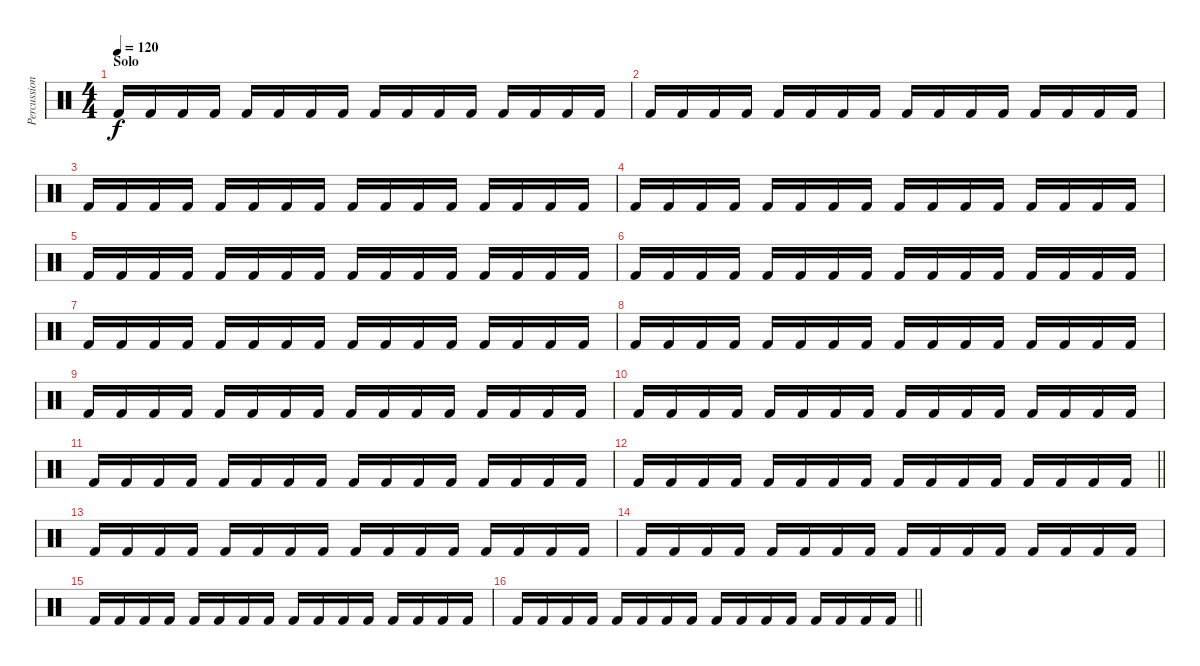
\track ("Percussioni" "Percussion") {instrument percussion}
\staff
\articulation defaults
\ts (4 4)
\section ("" "Solo")
\tempo 120
\clef neutral
\ks c "Kick (hit) 2".16{dy f} "Kick (hit) 2".16 "Kick (hit) 2".16 "Kick (hit) 2".16 "Kick (hit) 2".16 "Kick (hit) 2".16 "Kick (hit) 2".16 "Kick (hit) 2".16 "Kick (hit) 2".16 "Kick (hit) 2".16 "Kick (hit) 2".16 "Kick (hit) 2".16 "Kick (hit) 2".16 "Kick (hit) 2".16 "Kick (hit) 2".16 "Kick (hit) 2".16
|
"Kick (hit) 2".16 "Kick (hit) 2".16 "Kick (hit) 2".16 "Kick (hit) 2".16 "Kick (hit) 2".16 "Kick (hit) 2".16 "Kick (hit) 2".16 "Kick (hit) 2".16 "Kick (hit) 2".16 "Kick (hit) 2".16 "Kick (hit) 2".16 "Kick (hit) 2".16 "Kick (hit) 2".16 "Kick (hit) 2".16 "Kick (hit) 2".16 "Kick (hit) 2".16 |
"Kick (hit) 2".16 "Kick (hit) 2".16 "Kick (hit) 2".16 "Kick (hit) 2".16 "Kick (hit) 2".16 "Kick (hit) 2".16 "Kick (hit) 2".16 "Kick (hit) 2".16 "Kick (hit) 2".16 "Kick (hit) 2".16 "Kick (hit) 2".16 "Kick (hit) 2".16 "Kick (hit) 2".16 "Kick (hit) 2".16 "Kick (hit) 2".16 "Kick (hit) 2".16 |
"Kick (hit) 2".16 "Kick (hit) 2".16 "Kick (hit) 2".16 "Kick (hit) 2".16 "Kick (hit) 2".16 "Kick (hit) 2".16 "Kick (hit) 2".16 "Kick (hit) 2".16 "Kick (hit) 2".16 "Kick (hit) 2".16 "Kick (hit) 2".16 "Kick (hit) 2".16 "Kick (hit) 2".16 "Kick (hit) 2".16 "Kick (hit) 2".16 "Kick (hit) 2".16 |
"Kick (hit) 2".16 "Kick (hit) 2".16 "Kick (hit) 2".16 "Kick (hit) 2".16 "Kick (hit) 2".16 "Kick (hit) 2".16 "Kick (hit) 2".16 "Kick (hit) 2".16 "Kick (hit) 2".16 "Kick (hit) 2".16 "Kick (hit) 2".16 "Kick (hit) 2".16 "Kick (hit) 2".16 "Kick (hit) 2".16 "Kick (hit) 2".16 "Kick (hit) 2".16 |
"Kick (hit) 2".16 "Kick (hit) 2".16 "Kick (hit) 2".16 "Kick (hit) 2".16 "Kick (hit) 2".16 "Kick (hit) 2".16 "Kick (hit) 2".16 "Kick (hit) 2".16 "Kick (hit) 2".16 "Kick (hit) 2".16 "Kick (hit) 2".16 "Kick (hit) 2".16 "Kick (hit) 2".16 "Kick (hit) 2".16 "Kick (hit) 2".16 "Kick (hit) 2".16 |
"Kick (hit) 2".16 "Kick (hit) 2".16 "Kick (hit) 2".16 "Kick (hit) 2".16 "Kick (hit) 2".16 "Kick (hit) 2".16 "Kick (hit) 2".16 "Kick (hit) 2".16 "Kick (hit) 2".16 "Kick (hit) 2".16 "Kick (hit) 2".16 "Kick (hit) 2".16 "Kick (hit) 2".16 "Kick (hit) 2".16 "Kick (hit) 2".16 "Kick (hit) 2".16 |
"Kick (hit) 2".16 "Kick (hit) 2".16 "Kick (hit) 2".16 "Kick (hit) 2".16 "Kick (hit) 2".16 "Kick (hit) 2".16 "Kick (hit) 2".16 "Kick (hit) 2".16 "Kick (hit) 2".16 "Kick (hit) 2".16 "Kick (hit) 2".16 "Kick (hit) 2".16 "Kick (hit) 2".16 "Kick (hit) 2".16 "Kick (hit) 2".16 "Kick (hit) 2".16 |
"Kick (hit) 2".16 "Kick (hit) 2".16 "Kick (hit) 2".16 "Kick (hit) 2".16 "Kick (hit) 2".16 "Kick (hit) 2".16 "Kick (hit) 2".16 "Kick (hit) 2".16 "Kick (hit) 2".16 "Kick (hit) 2".16 "Kick (hit) 2".16 "Kick (hit) 2".16 "Kick (hit) 2".16 "Kick (hit) 2".16 "Kick (hit) 2".16 "Kick (hit) 2".16 |
"Kick (hit) 2".16 "Kick (hit) 2".16 "Kick (hit) 2".16 "Kick (hit) 2".16 "Kick (hit) 2".16 "Kick (hit) 2".16 "Kick (hit) 2".16 "Kick (hit) 2".16 "Kick (hit) 2".16 "Kick (hit) 2".16 "Kick (hit) 2".16 "Kick (hit) 2".16 "Kick (hit) 2".16 "Kick (hit) 2".16 "Kick (hit) 2".16 "Kick (hit) 2".16 |
"Kick (hit) 2".16 "Kick (hit) 2".16 "Kick (hit) 2".16 "Kick (hit) 2".16 "Kick (hit) 2".16 "Kick (hit) 2".16 "Kick (hit) 2".16 "Kick (hit) 2".16 "Kick (hit) 2".16 "Kick (hit) 2".16 "Kick (hit) 2".16 "Kick (hit) 2".16 "Kick (hit) 2".16 "Kick (hit) 2".16 "Kick (hit) 2".16 "Kick (hit) 2".16 |
\barLineRight lightlight "Kick (hit) 2".16 "Kick (hit) 2".16 "Kick (hit) 2".16 "Kick (hit) 2".16 "Kick (hit) 2".16 "Kick (hit) 2".16 "Kick (hit) 2".16 "Kick (hit) 2".16 "Kick (hit) 2".16 "Kick (hit) 2".16 "Kick (hit) 2".16 "Kick (hit) 2".16 "Kick (hit) 2".16 "Kick (hit) 2".16 "Kick (hit) 2".16 "Kick (hit) 2".16
|
"Kick (hit) 2".16 "Kick (hit) 2".16 "Kick (hit) 2".16 "Kick (hit) 2".16 "Kick (hit) 2".16 "Kick (hit) 2".16 "Kick (hit) 2".16 "Kick (hit) 2".16 "Kick (hit) 2".16 "Kick (hit) 2".16 "Kick (hit) 2".16 "Kick (hit) 2".16 "Kick (hit) 2".16 "Kick (hit) 2".16 "Kick (hit) 2".16 "Kick (hit) 2".16 |
"Kick (hit) 2".16 "Kick (hit) 2".16 "Kick (hit) 2".16 "Kick (hit) 2".16 "Kick (hit) 2".16 "Kick (hit) 2".16 "Kick (hit) 2".16 "Kick (hit) 2".16 "Kick (hit) 2".16 "Kick (hit) 2".16 "Kick (hit) 2".16 "Kick (hit) 2".16 "Kick (hit) 2".16 "Kick (hit) 2".16 "Kick (hit) 2".16 "Kick (hit) 2".16 |
"Kick (hit) 2".16 "Kick (hit) 2".16 "Kick (hit) 2".16 "Kick (hit) 2".16 "Kick (hit) 2".16 "Kick (hit) 2".16 "Kick (hit) 2".16 "Kick (hit) 2".16 "Kick (hit) 2".16 "Kick (hit) 2".16 "Kick (hit) 2".16 "Kick (hit) 2".16 "Kick (hit) 2".16 "Kick (hit) 2".16 "Kick (hit) 2".16 "Kick (hit) 2".16 |
\barLineRight lightlight "Kick (hit) 2".16 "Kick (hit) 2".16 "Kick (hit) 2".16 "Kick (hit) 2".16 "Kick (hit) 2".16 "Kick (hit) 2".16 "Kick (hit) 2".16 "Kick (hit) 2".16 "Kick (hit) 2".16 "Kick (hit) 2".16 "Kick (hit) 2".16 "Kick (hit) 2".16 "Kick (hit) 2".16 "Kick (hit) 2".16 "Kick (hit) 2".16 "Kick (hit) 2".16
